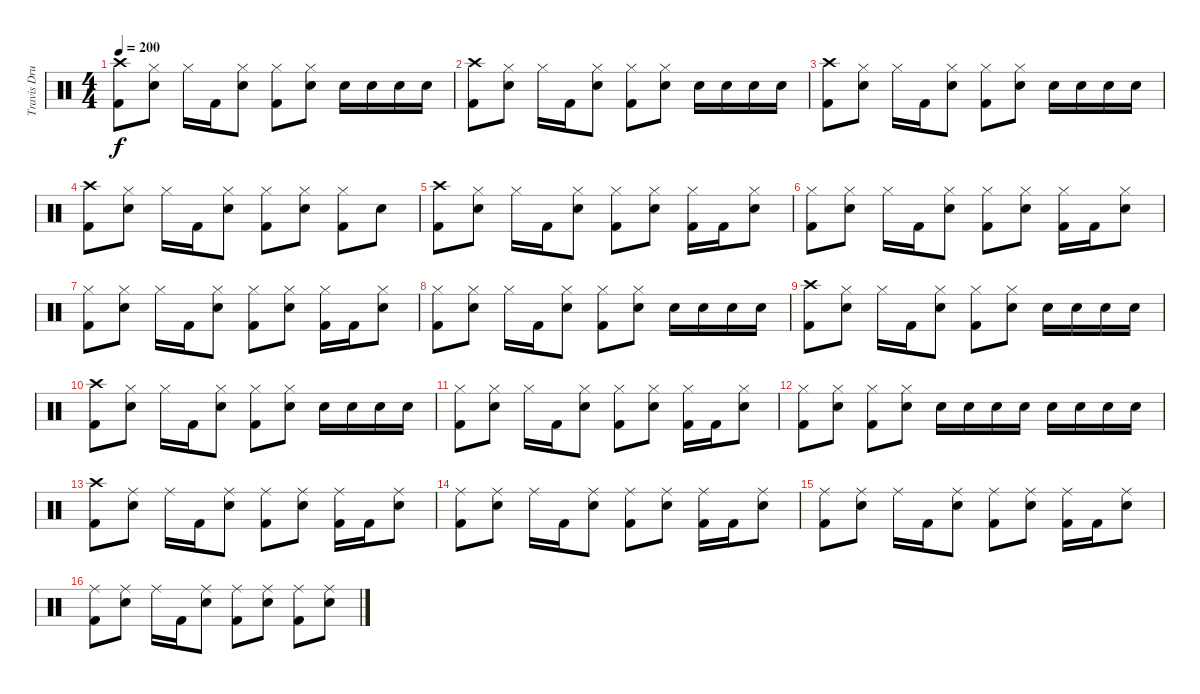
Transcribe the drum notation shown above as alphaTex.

\track ("Travis Drums" "Travis Dru") {instrument percussion}
\staff {score}
\articulation defaults
\ts (4 4)
\tempo 200
\clef neutral
\ks c
("Crash high (hit)" "Kick (hit) 2").8{dy f} ("Hi-Hat (closed)" "Electric Snare (hit)").8 "Hi-Hat (closed)".16 "Kick (hit) 2".16 ("Hi-Hat (closed)" "Electric Snare (hit)").8 ("Hi-Hat (closed)" "Kick (hit) 2").8 ("Hi-Hat (closed)" "Electric Snare (hit)").8 "Electric Snare (hit)".16 "Electric Snare (hit)".16 "Electric Snare (hit)".16 "Electric Snare (hit)".16 |
("Crash high (hit)" "Kick (hit) 2").8 ("Hi-Hat (closed)" "Electric Snare (hit)").8 "Hi-Hat (closed)".16 "Kick (hit) 2".16 ("Hi-Hat (closed)" "Electric Snare (hit)").8 ("Hi-Hat (closed)" "Kick (hit) 2").8 ("Hi-Hat (closed)" "Electric Snare (hit)").8 "Electric Snare (hit)".16 "Electric Snare (hit)".16 "Electric Snare (hit)".16 "Electric Snare (hit)".16 |
("Crash high (hit)" "Kick (hit) 2").8 ("Hi-Hat (closed)" "Electric Snare (hit)").8 "Hi-Hat (closed)".16 "Kick (hit) 2".16 ("Hi-Hat (closed)" "Electric Snare (hit)").8 ("Hi-Hat (closed)" "Kick (hit) 2").8 ("Hi-Hat (closed)" "Electric Snare (hit)").8 "Electric Snare (hit)".16 "Electric Snare (hit)".16 "Electric Snare (hit)".16 "Electric Snare (hit)".16 |
("Crash high (hit)" "Kick (hit) 2").8 ("Hi-Hat (closed)" "Electric Snare (hit)").8 "Hi-Hat (closed)".16 "Kick (hit) 2".16 ("Hi-Hat (closed)" "Electric Snare (hit)").8 ("Hi-Hat (closed)" "Kick (hit) 2").8 ("Hi-Hat (closed)" "Electric Snare (hit)").8 ("Hi-Hat (closed)" "Kick (hit) 2").8 "Electric Snare (hit)".8 |
("Crash high (hit)" "Kick (hit) 2").8 ("Hi-Hat (closed)" "Electric Snare (hit)").8 "Hi-Hat (closed)".16 "Kick (hit) 2".16 ("Hi-Hat (closed)" "Electric Snare (hit)").8 ("Hi-Hat (closed)" "Kick (hit) 2").8 ("Hi-Hat (closed)" "Electric Snare (hit)").8 ("Hi-Hat (closed)" "Kick (hit) 2").16 "Kick (hit) 2".16 ("Hi-Hat (closed)" "Electric Snare (hit)").8 |
("Hi-Hat (closed)" "Kick (hit) 2").8 ("Hi-Hat (closed)" "Electric Snare (hit)").8 "Hi-Hat (closed)".16 "Kick (hit) 2".16 ("Hi-Hat (closed)" "Electric Snare (hit)").8 ("Hi-Hat (closed)" "Kick (hit) 2").8 ("Hi-Hat (closed)" "Electric Snare (hit)").8 ("Hi-Hat (closed)" "Kick (hit) 2").16 "Kick (hit) 2".16 ("Hi-Hat (closed)" "Electric Snare (hit)").8 |
("Hi-Hat (closed)" "Kick (hit) 2").8 ("Hi-Hat (closed)" "Electric Snare (hit)").8 "Hi-Hat (closed)".16 "Kick (hit) 2".16 ("Hi-Hat (closed)" "Electric Snare (hit)").8 ("Hi-Hat (closed)" "Kick (hit) 2").8 ("Hi-Hat (closed)" "Electric Snare (hit)").8 ("Hi-Hat (closed)" "Kick (hit) 2").16 "Kick (hit) 2".16 ("Hi-Hat (closed)" "Electric Snare (hit)").8 |
("Hi-Hat (closed)" "Kick (hit) 2").8 ("Hi-Hat (closed)" "Electric Snare (hit)").8 "Hi-Hat (closed)".16 "Kick (hit) 2".16 ("Hi-Hat (closed)" "Electric Snare (hit)").8 ("Hi-Hat (closed)" "Kick (hit) 2").8 ("Hi-Hat (closed)" "Electric Snare (hit)").8 "Electric Snare (hit)".16 "Electric Snare (hit)".16 "Electric Snare (hit)".16 "Electric Snare (hit)".16 |
("Crash high (hit)" "Kick (hit) 2").8 ("Hi-Hat (closed)" "Electric Snare (hit)").8 "Hi-Hat (closed)".16 "Kick (hit) 2".16 ("Hi-Hat (closed)" "Electric Snare (hit)").8 ("Hi-Hat (closed)" "Kick (hit) 2").8 ("Hi-Hat (closed)" "Electric Snare (hit)").8 "Electric Snare (hit)".16 "Electric Snare (hit)".16 "Electric Snare (hit)".16 "Electric Snare (hit)".16 |
("Crash high (hit)" "Kick (hit) 2").8 ("Hi-Hat (closed)" "Electric Snare (hit)").8 "Hi-Hat (closed)".16 "Kick (hit) 2".16 ("Hi-Hat (closed)" "Electric Snare (hit)").8 ("Hi-Hat (closed)" "Kick (hit) 2").8 ("Hi-Hat (closed)" "Electric Snare (hit)").8 "Electric Snare (hit)".16 "Electric Snare (hit)".16 "Electric Snare (hit)".16 "Electric Snare (hit)".16 |
("Hi-Hat (closed)" "Kick (hit) 2").8 ("Hi-Hat (closed)" "Electric Snare (hit)").8 "Hi-Hat (closed)".16 "Kick (hit) 2".16 ("Hi-Hat (closed)" "Electric Snare (hit)").8 ("Hi-Hat (closed)" "Kick (hit) 2").8 ("Hi-Hat (closed)" "Electric Snare (hit)").8 ("Hi-Hat (closed)" "Kick (hit) 2").16 "Kick (hit) 2".16 ("Hi-Hat (closed)" "Electric Snare (hit)").8 |
("Hi-Hat (closed)" "Kick (hit) 2").8 ("Hi-Hat (closed)" "Electric Snare (hit)").8 ("Hi-Hat (closed)" "Kick (hit) 2").8 ("Hi-Hat (closed)" "Electric Snare (hit)").8 "Electric Snare (hit)".16 "Electric Snare (hit)".16 "Electric Snare (hit)".16 "Electric Snare (hit)".16 "Electric Snare (hit)".16 "Electric Snare (hit)".16 "Electric Snare (hit)".16 "Electric Snare (hit)".16 |
("Crash high (hit)" "Kick (hit) 2").8 ("Ride (middle)" "Electric Snare (hit)").8 "Ride (middle)".16 "Kick (hit) 2".16 ("Ride (middle)" "Electric Snare (hit)").8 ("Ride (middle)" "Kick (hit) 2").8 ("Ride (middle)" "Electric Snare (hit)").8 ("Ride (middle)" "Kick (hit) 2").16 "Kick (hit) 2".16 ("Ride (middle)" "Electric Snare (hit)").8 |
("Ride (middle)" "Kick (hit) 2").8 ("Ride (middle)" "Electric Snare (hit)").8 "Ride (middle)".16 "Kick (hit) 2".16 ("Ride (middle)" "Electric Snare (hit)").8 ("Ride (middle)" "Kick (hit) 2").8 ("Ride (middle)" "Electric Snare (hit)").8 ("Ride (middle)" "Kick (hit) 2").16 "Kick (hit) 2".16 ("Ride (middle)" "Electric Snare (hit)").8 |
("Ride (middle)" "Kick (hit) 2").8 ("Ride (middle)" "Electric Snare (hit)").8 "Ride (middle)".16 "Kick (hit) 2".16 ("Ride (middle)" "Electric Snare (hit)").8 ("Ride (middle)" "Kick (hit) 2").8 ("Ride (middle)" "Electric Snare (hit)").8 ("Ride (middle)" "Kick (hit) 2").16 "Kick (hit) 2".16 ("Ride (middle)" "Electric Snare (hit)").8 |
("Ride (middle)" "Kick (hit) 2").8 ("Ride (middle)" "Electric Snare (hit)").8 "Ride (middle)".16 "Kick (hit) 2".16 ("Ride (middle)" "Electric Snare (hit)").8 ("Ride (middle)" "Kick (hit) 2").8 ("Ride (middle)" "Electric Snare (hit)").8 ("Ride (middle)" "Kick (hit) 2").8 ("Ride (middle)" "Electric Snare (hit)").8
